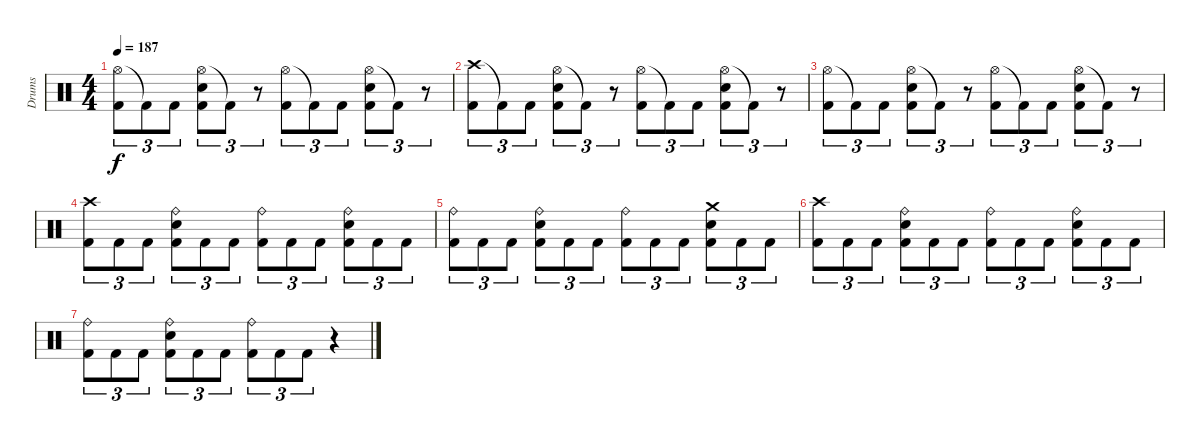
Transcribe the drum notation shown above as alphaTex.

\track ("Drums" "Drums") {instrument percussion}
\staff {score}
\articulation defaults
\ts (4 4)
\tempo 187
\clef neutral
\ks c
("Hi-Hat (open)" "Kick (hit) 2").8{tu (3 2) dy f} "Kick (hit) 2"{t}.8{tu (3 2)} "Kick (hit) 2".8{tu (3 2)} ("Hi-Hat (open)" "Snare (hit) 2" "Kick (hit) 2").8{tu (3 2)} "Kick (hit) 2"{t}.8{tu (3 2)} r.8{tu (3 2)} ("Hi-Hat (open)" "Kick (hit) 2").8{tu (3 2)} "Kick (hit) 2"{t}.8{tu (3 2)} "Kick (hit) 2".8{tu (3 2)} ("Hi-Hat (open)" "Snare (hit) 2" "Kick (hit) 2").8{tu (3 2)} "Kick (hit) 2"{t}.8{tu (3 2)} r.8{tu (3 2)} |
("Crash high (hit)" "Kick (hit) 2").8{tu (3 2)} "Kick (hit) 2"{t}.8{tu (3 2)} "Kick (hit) 2".8{tu (3 2)} ("Hi-Hat (open)" "Snare (hit) 2" "Kick (hit) 2").8{tu (3 2)} "Kick (hit) 2"{t}.8{tu (3 2)} r.8{tu (3 2)} ("Hi-Hat (open)" "Kick (hit) 2").8{tu (3 2)} "Kick (hit) 2"{t}.8{tu (3 2)} "Kick (hit) 2".8{tu (3 2)} ("Hi-Hat (open)" "Snare (hit) 2" "Kick (hit) 2").8{tu (3 2)} "Kick (hit) 2"{t}.8{tu (3 2)} r.8{tu (3 2)} |
("Hi-Hat (open)" "Kick (hit) 2").8{tu (3 2)} "Kick (hit) 2"{t}.8{tu (3 2)} "Kick (hit) 2".8{tu (3 2)} ("Hi-Hat (open)" "Snare (hit) 2" "Kick (hit) 2").8{tu (3 2)} "Kick (hit) 2"{t}.8{tu (3 2)} r.8{tu (3 2)} ("Hi-Hat (open)" "Kick (hit) 2").8{tu (3 2)} "Kick (hit) 2"{t}.8{tu (3 2)} "Kick (hit) 2".8{tu (3 2)} ("Hi-Hat (open)" "Snare (hit) 2" "Kick (hit) 2").8{tu (3 2)} "Kick (hit) 2"{t}.8{tu (3 2)} r.8{tu (3 2)} |
("Crash high (hit)" "Kick (hit) 2").8{tu (3 2)} "Kick (hit) 2".8{tu (3 2)} "Kick (hit) 2".8{tu (3 2)} ("Ride (bell)" "Snare (hit) 2" "Kick (hit) 2").8{tu (3 2)} "Kick (hit) 2".8{tu (3 2)} "Kick (hit) 2".8{tu (3 2)} ("Ride (bell)" "Kick (hit) 2").8{tu (3 2)} "Kick (hit) 2".8{tu (3 2)} "Kick (hit) 2".8{tu (3 2)} ("Ride (bell)" "Snare (hit) 2" "Kick (hit) 2").8{tu (3 2)} "Kick (hit) 2".8{tu (3 2)} "Kick (hit) 2".8{tu (3 2)} |
("Ride (bell)" "Kick (hit) 2").8{tu (3 2)} "Kick (hit) 2".8{tu (3 2)} "Kick (hit) 2".8{tu (3 2)} ("Ride (bell)" "Snare (hit) 2" "Kick (hit) 2").8{tu (3 2)} "Kick (hit) 2".8{tu (3 2)} "Kick (hit) 2".8{tu (3 2)} ("Ride (bell)" "Kick (hit) 2").8{tu (3 2)} "Kick (hit) 2".8{tu (3 2)} "Kick (hit) 2".8{tu (3 2)} ("Crash medium (hit)" "Snare (hit) 2" "Kick (hit) 2").8{tu (3 2)} "Kick (hit) 2".8{tu (3 2)} "Kick (hit) 2".8{tu (3 2)} |
("Crash high (hit)" "Kick (hit) 2").8{tu (3 2)} "Kick (hit) 2".8{tu (3 2)} "Kick (hit) 2".8{tu (3 2)} ("Ride (bell)" "Snare (hit) 2" "Kick (hit) 2").8{tu (3 2)} "Kick (hit) 2".8{tu (3 2)} "Kick (hit) 2".8{tu (3 2)} ("Ride (bell)" "Kick (hit) 2").8{tu (3 2)} "Kick (hit) 2".8{tu (3 2)} "Kick (hit) 2".8{tu (3 2)} ("Ride (bell)" "Snare (hit) 2" "Kick (hit) 2").8{tu (3 2)} "Kick (hit) 2".8{tu (3 2)} "Kick (hit) 2".8{tu (3 2)} |
("Ride (bell)" "Kick (hit) 2").8{tu (3 2)} "Kick (hit) 2".8{tu (3 2)} "Kick (hit) 2".8{tu (3 2)} ("Ride (bell)" "Snare (hit) 2" "Kick (hit) 2").8{tu (3 2)} "Kick (hit) 2".8{tu (3 2)} "Kick (hit) 2".8{tu (3 2)} ("Ride (bell)" "Kick (hit) 2").8{tu (3 2)} "Kick (hit) 2".8{tu (3 2)} "Kick (hit) 2".8{tu (3 2)} r.4
